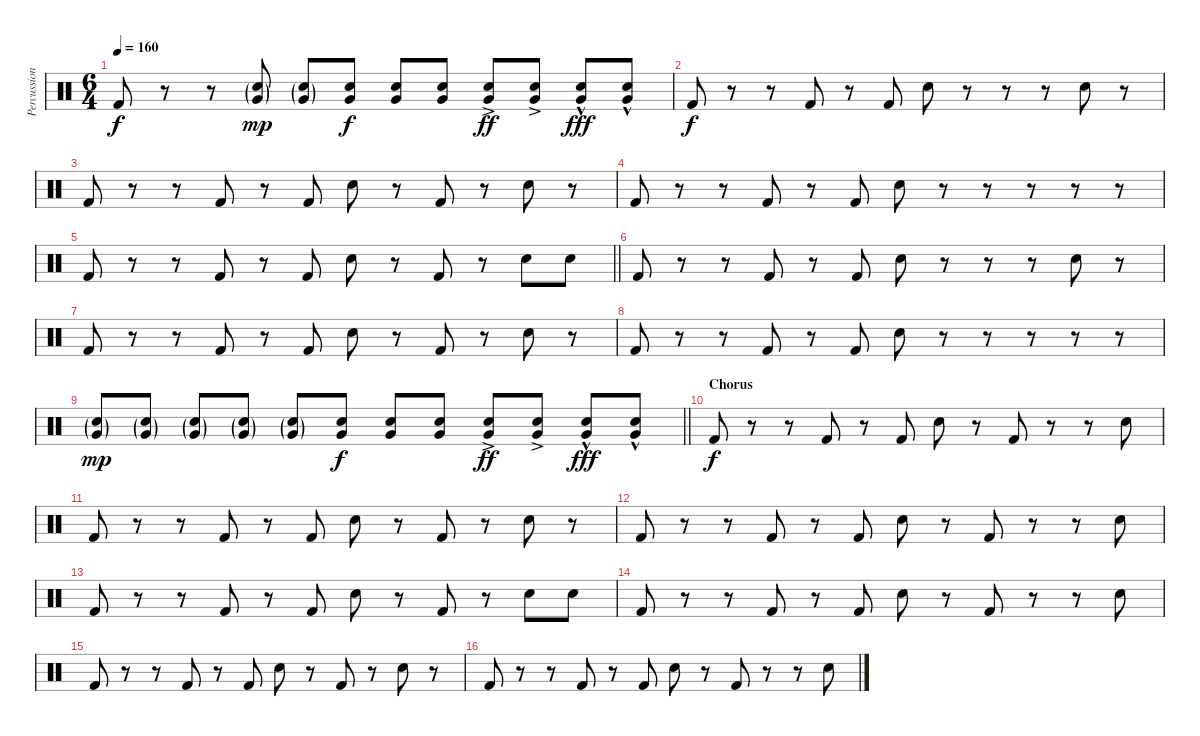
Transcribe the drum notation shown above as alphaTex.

\track ("Percussion" "Percussion") {instrument percussion}
\staff {score}
\articulation defaults
\ts (6 4)
\tempo 160
\clef neutral
\ks c "Kick (hit) 2".8{dy f}
r.8 r.8 ("Snare (hit) 2"{g} "Very Low Tom (hit)"{g}).8{dy mp} ("Snare (hit) 2"{g} "Very Low Tom (hit)"{g}).8 ("Snare (hit) 2" "Very Low Tom (hit)").8{dy f} ("Snare (hit) 2" "Very Low Tom (hit)").8 ("Snare (hit) 2" "Very Low Tom (hit)").8 ("Snare (hit) 2"{ac} "Very Low Tom (hit)"{ac}).8{dy ff} ("Snare (hit) 2"{ac} "Very Low Tom (hit)"{ac}).8 ("Snare (hit) 2"{hac} "Very Low Tom (hit)"{hac}).8{dy fff} ("Snare (hit) 2"{hac} "Very Low Tom (hit)"{hac}).8 |
"Kick (hit) 2".8{dy f} r.8 r.8 "Kick (hit) 2".8 r.8 "Kick (hit) 2".8 "Snare (hit) 2".8 r.8 r.8 r.8 "Snare (hit) 2".8 r.8 |
"Kick (hit) 2".8 r.8 r.8 "Kick (hit) 2".8 r.8 "Kick (hit) 2".8 "Snare (hit) 2".8 r.8 "Kick (hit) 2".8 r.8 "Snare (hit) 2".8 r.8 |
"Kick (hit) 2".8 r.8 r.8 "Kick (hit) 2".8 r.8 "Kick (hit) 2".8 "Snare (hit) 2".8 r.8 r.8 r.8 r.8 r.8 |
\barLineRight lightlight "Kick (hit) 2".8
r.8 r.8 "Kick (hit) 2".8 r.8 "Kick (hit) 2".8 "Snare (hit) 2".8 r.8 "Kick (hit) 2".8 r.8 "Snare (hit) 2".8 "Snare (hit) 2".8 |
"Kick (hit) 2".8 r.8 r.8 "Kick (hit) 2".8 r.8 "Kick (hit) 2".8 "Snare (hit) 2".8 r.8 r.8 r.8 "Snare (hit) 2".8 r.8 |
"Kick (hit) 2".8 r.8 r.8 "Kick (hit) 2".8 r.8 "Kick (hit) 2".8 "Snare (hit) 2".8 r.8 "Kick (hit) 2".8 r.8 "Snare (hit) 2".8 r.8 |
"Kick (hit) 2".8 r.8 r.8 "Kick (hit) 2".8 r.8 "Kick (hit) 2".8 "Snare (hit) 2".8 r.8 r.8 r.8 r.8 r.8 |
\barLineRight lightlight
("Snare (hit) 2"{g} "Very Low Tom (hit)"{g}).8{dy mp} ("Snare (hit) 2"{g} "Very Low Tom (hit)"{g}).8 ("Snare (hit) 2"{g} "Very Low Tom (hit)"{g}).8 ("Snare (hit) 2"{g} "Very Low Tom (hit)"{g}).8 ("Snare (hit) 2"{g} "Very Low Tom (hit)"{g}).8 ("Snare (hit) 2" "Very Low Tom (hit)").8{dy f} ("Snare (hit) 2" "Very Low Tom (hit)").8 ("Snare (hit) 2" "Very Low Tom (hit)").8 ("Snare (hit) 2"{ac} "Very Low Tom (hit)"{ac}).8{dy ff} ("Snare (hit) 2"{ac} "Very Low Tom (hit)"{ac}).8 ("Snare (hit) 2"{hac} "Very Low Tom (hit)"{hac}).8{dy fff} ("Snare (hit) 2"{hac} "Very Low Tom (hit)"{hac}).8 |
\section ("" "Chorus")
"Kick (hit) 2".8{dy f} r.8 r.8 "Kick (hit) 2".8 r.8 "Kick (hit) 2".8 "Snare (hit) 2".8 r.8 "Kick (hit) 2".8 r.8 r.8 "Snare (hit) 2".8 |
"Kick (hit) 2".8 r.8 r.8 "Kick (hit) 2".8 r.8 "Kick (hit) 2".8 "Snare (hit) 2".8 r.8 "Kick (hit) 2".8 r.8 "Snare (hit) 2".8 r.8 |
"Kick (hit) 2".8 r.8 r.8 "Kick (hit) 2".8 r.8 "Kick (hit) 2".8 "Snare (hit) 2".8 r.8 "Kick (hit) 2".8 r.8 r.8 "Snare (hit) 2".8 |
"Kick (hit) 2".8 r.8 r.8 "Kick (hit) 2".8 r.8 "Kick (hit) 2".8 "Snare (hit) 2".8 r.8 "Kick (hit) 2".8 r.8 "Snare (hit) 2".8 "Snare (hit) 2".8 |
"Kick (hit) 2".8 r.8 r.8 "Kick (hit) 2".8 r.8 "Kick (hit) 2".8 "Snare (hit) 2".8 r.8 "Kick (hit) 2".8 r.8 r.8 "Snare (hit) 2".8 |
"Kick (hit) 2".8 r.8 r.8 "Kick (hit) 2".8 r.8 "Kick (hit) 2".8 "Snare (hit) 2".8 r.8 "Kick (hit) 2".8 r.8 "Snare (hit) 2".8 r.8 |
"Kick (hit) 2".8 r.8 r.8 "Kick (hit) 2".8 r.8 "Kick (hit) 2".8 "Snare (hit) 2".8 r.8 "Kick (hit) 2".8 r.8 r.8 "Snare (hit) 2".8
